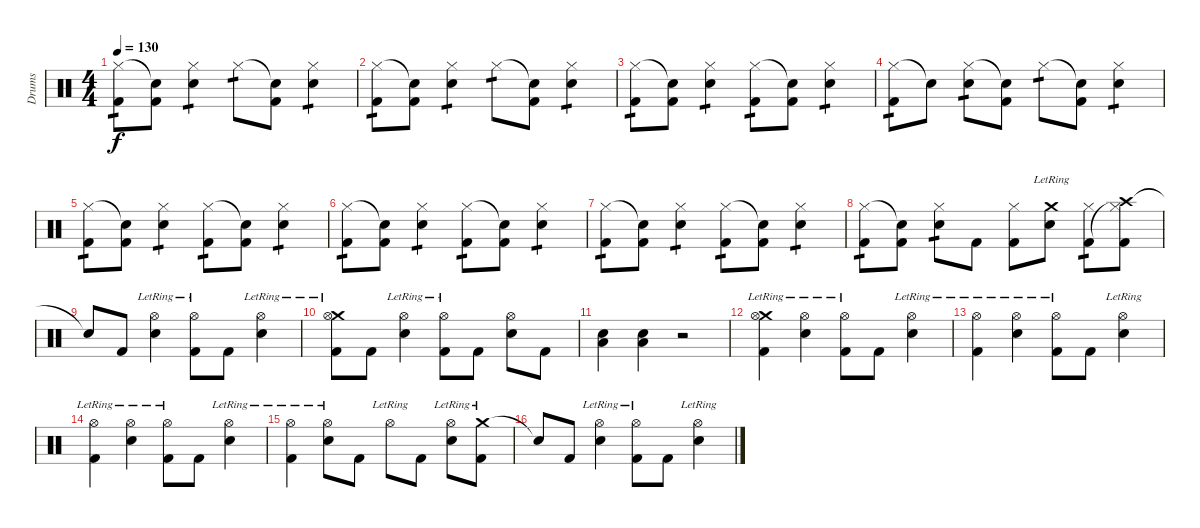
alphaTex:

\track ("Drums" "Drums") {instrument percussion}
\staff {score}
\articulation defaults
\ts (4 4)
\tempo 130
\clef neutral
\ks c
("Hi-Hat (closed)" "Kick (hit) 2").8{tp 1 dy f} ("Snare (hit)"{t} "Kick (hit) 2").8 ("Hi-Hat (closed)" "Electric Snare (hit)").4{tp 1} "Hi-Hat (closed)".8{tp 1} ("Snare (hit)"{t} "Kick (hit) 2").8 ("Hi-Hat (closed)" "Electric Snare (hit)").4{tp 1} |
("Hi-Hat (closed)" "Kick (hit) 2").8{tp 1} ("Snare (hit)"{t} "Kick (hit) 2").8 ("Hi-Hat (closed)" "Electric Snare (hit)").4{tp 1} "Hi-Hat (closed)".8{tp 1} ("Snare (hit)"{t} "Kick (hit) 2").8 ("Hi-Hat (closed)" "Electric Snare (hit)").4{tp 1} |
("Hi-Hat (closed)" "Kick (hit) 2").8{tp 1} ("Snare (hit)"{t} "Kick (hit) 2").8 ("Hi-Hat (closed)" "Electric Snare (hit)").4{tp 1} ("Hi-Hat (closed)" "Kick (hit) 2").8{tp 1} ("Snare (hit)"{t} "Kick (hit) 2").8 ("Hi-Hat (closed)" "Electric Snare (hit)").4{tp 1} |
("Hi-Hat (closed)" "Kick (hit) 2").8{tp 1} "Snare (hit)"{t}.8 ("Hi-Hat (closed)" "Electric Snare (hit)").8{tp 1} ("Snare (hit)"{t} "Kick (hit) 2").8 "Hi-Hat (closed)".8{tp 1} ("Snare (hit)"{t} "Kick (hit) 2").8 ("Hi-Hat (closed)" "Electric Snare (hit)").4{tp 1} |
("Hi-Hat (closed)" "Kick (hit) 2").8{tp 1} ("Snare (hit)"{t} "Kick (hit) 2").8 ("Hi-Hat (closed)" "Electric Snare (hit)").4{tp 1} ("Hi-Hat (closed)" "Kick (hit) 2").8{tp 1} ("Snare (hit)"{t} "Kick (hit) 2").8 ("Hi-Hat (closed)" "Electric Snare (hit)").4{tp 1} |
("Hi-Hat (closed)" "Kick (hit) 2").8{tp 1} ("Snare (hit)"{t} "Kick (hit) 2").8 ("Hi-Hat (closed)" "Electric Snare (hit)").4{tp 1} ("Hi-Hat (closed)" "Kick (hit) 2").8{tp 1} ("Snare (hit)"{t} "Kick (hit) 2").8 ("Hi-Hat (closed)" "Electric Snare (hit)").4{tp 1} |
("Hi-Hat (closed)" "Kick (hit) 2").8{tp 1} ("Snare (hit)"{t} "Kick (hit) 2").8 ("Hi-Hat (closed)" "Electric Snare (hit)").4{tp 1} ("Hi-Hat (closed)" "Kick (hit) 2").8{tp 1} ("Snare (hit)"{t} "Kick (hit) 2").8 ("Hi-Hat (closed)" "Electric Snare (hit)").4{tp 1} |
("Hi-Hat (closed)" "Kick (hit) 2").8{tp 1} ("Snare (hit)"{t} "Kick (hit) 2").8 ("Hi-Hat (closed)" "Electric Snare (hit)").8{tp 1} "Kick (hit) 2".8 ("Hi-Hat (closed)" "Kick (hit) 2").8 ("Crash medium (hit)"{lr} "Electric Snare (hit)").8 ("Hi-Hat (closed)" "Kick (hit) 2").8{tp 1} ("Crash high (hit)" "Hi-Hat (closed)"{t} "Kick (hit) 2").8 |
"Snare (hit)"{t}.8 "Kick (hit) 2".8 ("Hi-Hat (open)"{lr} "Electric Snare (hit)").4 ("Hi-Hat (open)"{lr} "Kick (hit) 2").8 "Kick (hit) 2".8 ("Hi-Hat (open)"{lr} "Electric Snare (hit)").4 |
("Crash medium (hit)"{lr} "Hi-Hat (open)"{lr} "Kick (hit) 2").8 "Kick (hit) 2".8 ("Hi-Hat (open)"{lr} "Electric Snare (hit)").4 ("Hi-Hat (open)"{lr} "Kick (hit) 2").8 "Kick (hit) 2".8 ("Hi-Hat (open)" "Electric Snare (hit)").8 "Kick (hit) 2".8 |
("Low Floor Tom (hit)" "Electric Snare (hit)").4 ("Low Floor Tom (hit)" "Electric Snare (hit)").4 r.2 |
("Crash medium (hit)" "Hi-Hat (open)"{lr} "Kick (hit) 2").4 ("Hi-Hat (open)"{lr} "Electric Snare (hit)").4 ("Hi-Hat (open)"{lr} "Kick (hit) 2").8 "Kick (hit) 2".8 ("Hi-Hat (open)"{lr} "Electric Snare (hit)").4 |
("Hi-Hat (open)"{lr} "Kick (hit) 2").4 ("Hi-Hat (open)"{lr} "Electric Snare (hit)").4 ("Hi-Hat (open)"{lr} "Kick (hit) 2").8 "Kick (hit) 2".8 ("Hi-Hat (open)"{lr} "Electric Snare (hit)").4 |
("Hi-Hat (open)"{lr} "Kick (hit) 2").4 ("Hi-Hat (open)"{lr} "Electric Snare (hit)").4 ("Hi-Hat (open)"{lr} "Kick (hit) 2").8 "Kick (hit) 2".8 ("Hi-Hat (open)"{lr} "Electric Snare (hit)").4 |
("Hi-Hat (open)"{lr} "Kick (hit) 2").4 ("Hi-Hat (open)"{lr} "Electric Snare (hit)").8 "Kick (hit) 2".8 "Hi-Hat (open)"{lr}.8 "Kick (hit) 2".8 ("Hi-Hat (open)"{lr} "Electric Snare (hit)").8 ("Crash medium (hit)"{lr} "Kick (hit) 2").8 |
"Snare (hit)"{t}.8 "Kick (hit) 2".8 ("Hi-Hat (open)"{lr} "Electric Snare (hit)").4 ("Hi-Hat (open)"{lr} "Kick (hit) 2").8 "Kick (hit) 2".8 ("Hi-Hat (open)"{lr} "Electric Snare (hit)").4
